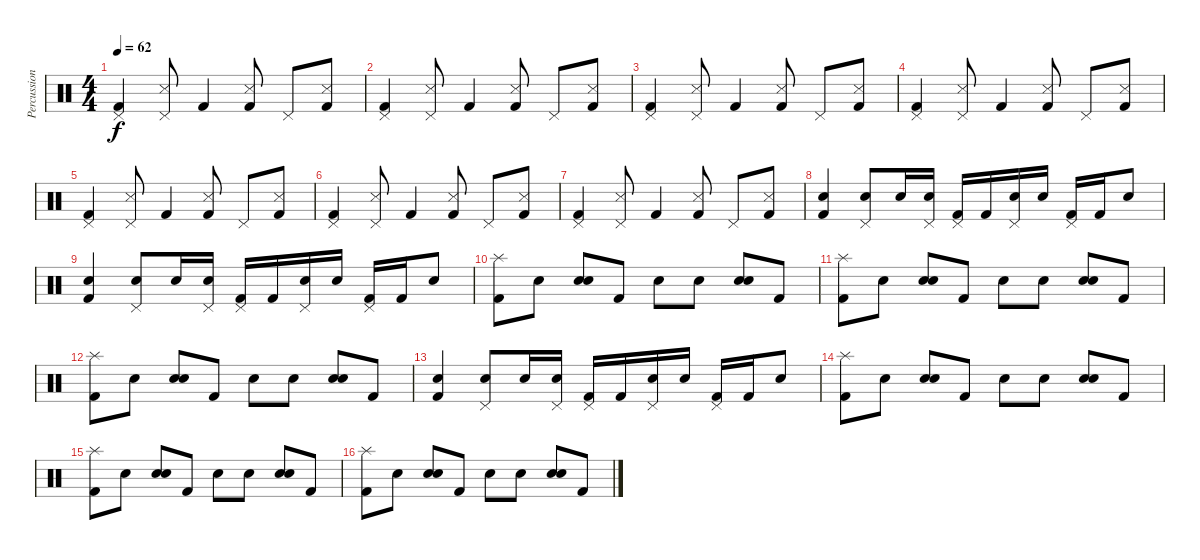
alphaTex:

\track ("Percussions" "Percussion") {instrument percussion}
\staff {score}
\articulation defaults
\ts (4 4)
\tempo 62
\clef neutral
\ks c
("Kick (hit) 2" "Pedal Hi-Hat (hit)").4{dy f} ("Snare (side stick) 3" "Pedal Hi-Hat (hit)").8 "Kick (hit) 2".4 ("Kick (hit) 2" "Snare (side stick) 3").8 "Pedal Hi-Hat (hit)".8 ("Kick (hit) 2" "Snare (side stick) 3").8 |
("Kick (hit) 2" "Pedal Hi-Hat (hit)").4 ("Snare (side stick) 3" "Pedal Hi-Hat (hit)").8 "Kick (hit) 2".4 ("Kick (hit) 2" "Snare (side stick) 3").8 "Pedal Hi-Hat (hit)".8 ("Kick (hit) 2" "Snare (side stick) 3").8 |
("Kick (hit) 2" "Pedal Hi-Hat (hit)").4 ("Snare (side stick) 3" "Pedal Hi-Hat (hit)").8 "Kick (hit) 2".4 ("Kick (hit) 2" "Snare (side stick) 3").8 "Pedal Hi-Hat (hit)".8 ("Kick (hit) 2" "Snare (side stick) 3").8 |
("Kick (hit) 2" "Pedal Hi-Hat (hit)").4 ("Snare (side stick) 3" "Pedal Hi-Hat (hit)").8 "Kick (hit) 2".4 ("Kick (hit) 2" "Snare (side stick) 3").8 "Pedal Hi-Hat (hit)".8 ("Kick (hit) 2" "Snare (side stick) 3").8 |
("Kick (hit) 2" "Pedal Hi-Hat (hit)").4 ("Snare (side stick) 3" "Pedal Hi-Hat (hit)").8 "Kick (hit) 2".4 ("Kick (hit) 2" "Snare (side stick) 3").8 "Pedal Hi-Hat (hit)".8 ("Kick (hit) 2" "Snare (side stick) 3").8 |
("Kick (hit) 2" "Pedal Hi-Hat (hit)").4 ("Snare (side stick) 3" "Pedal Hi-Hat (hit)").8 "Kick (hit) 2".4 ("Kick (hit) 2" "Snare (side stick) 3").8 "Pedal Hi-Hat (hit)".8 ("Kick (hit) 2" "Snare (side stick) 3").8 |
("Kick (hit) 2" "Pedal Hi-Hat (hit)").4 ("Snare (side stick) 3" "Pedal Hi-Hat (hit)").8 "Kick (hit) 2".4 ("Kick (hit) 2" "Snare (side stick) 3").8 "Pedal Hi-Hat (hit)".8 ("Kick (hit) 2" "Snare (side stick) 3").8 |
("Kick (hit) 2" "Electric Snare (hit)").4 ("Snare (hit) 2" "Pedal Hi-Hat (hit)").8 "Snare (hit) 2".16 ("Snare (hit) 2" "Pedal Hi-Hat (hit)").16 ("Kick (hit) 2" "Pedal Hi-Hat (hit)").16 "Kick (hit) 2".16 ("Snare (hit) 2" "Pedal Hi-Hat (hit)").16 "Snare (hit) 2".16 ("Kick (hit) 2" "Pedal Hi-Hat (hit)").16 "Kick (hit) 2".16 "Snare (hit) 2".8 |
("Kick (hit) 2" "Electric Snare (hit)").4 ("Snare (hit) 2" "Pedal Hi-Hat (hit)").8 "Snare (hit) 2".16 ("Snare (hit) 2" "Pedal Hi-Hat (hit)").16 ("Kick (hit) 2" "Pedal Hi-Hat (hit)").16 "Kick (hit) 2".16 ("Snare (hit) 2" "Pedal Hi-Hat (hit)").16 "Snare (hit) 2".16 ("Kick (hit) 2" "Pedal Hi-Hat (hit)").16 "Kick (hit) 2".16 "Snare (hit) 2".8 |
("Kick (hit) 2" "Splash (hit)").8 "Electric Snare (hit)".8 ("Snare (hit) 2" "Electric Snare (hit)").8 "Kick (hit) 2".8 "Electric Snare (hit)".8 "Electric Snare (hit)".8 ("Snare (hit) 2" "Electric Snare (hit)").8 "Kick (hit) 2".8 |
("Kick (hit) 2" "Splash (hit)").8 "Electric Snare (hit)".8 ("Snare (hit) 2" "Electric Snare (hit)").8 "Kick (hit) 2".8 "Electric Snare (hit)".8 "Electric Snare (hit)".8 ("Snare (hit) 2" "Electric Snare (hit)").8 "Kick (hit) 2".8 |
("Kick (hit) 2" "Splash (hit)").8 "Electric Snare (hit)".8 ("Snare (hit) 2" "Electric Snare (hit)").8 "Kick (hit) 2".8 "Electric Snare (hit)".8 "Electric Snare (hit)".8 ("Snare (hit) 2" "Electric Snare (hit)").8 "Kick (hit) 2".8 |
("Kick (hit) 2" "Electric Snare (hit)").4 ("Snare (hit) 2" "Pedal Hi-Hat (hit)").8 "Snare (hit) 2".16 ("Snare (hit) 2" "Pedal Hi-Hat (hit)").16 ("Kick (hit) 2" "Pedal Hi-Hat (hit)").16 "Kick (hit) 2".16 ("Snare (hit) 2" "Pedal Hi-Hat (hit)").16 "Snare (hit) 2".16 ("Kick (hit) 2" "Pedal Hi-Hat (hit)").16 "Kick (hit) 2".16 "Snare (hit) 2".8 |
("Kick (hit) 2" "Splash (hit)").8 "Electric Snare (hit)".8 ("Snare (hit) 2" "Electric Snare (hit)").8 "Kick (hit) 2".8 "Electric Snare (hit)".8 "Electric Snare (hit)".8 ("Snare (hit) 2" "Electric Snare (hit)").8 "Kick (hit) 2".8 |
("Kick (hit) 2" "Splash (hit)").8 "Electric Snare (hit)".8 ("Snare (hit) 2" "Electric Snare (hit)").8 "Kick (hit) 2".8 "Electric Snare (hit)".8 "Electric Snare (hit)".8 ("Snare (hit) 2" "Electric Snare (hit)").8 "Kick (hit) 2".8 |
("Kick (hit) 2" "Splash (hit)").8 "Electric Snare (hit)".8 ("Snare (hit) 2" "Electric Snare (hit)").8 "Kick (hit) 2".8 "Electric Snare (hit)".8 "Electric Snare (hit)".8 ("Snare (hit) 2" "Electric Snare (hit)").8 "Kick (hit) 2".8
